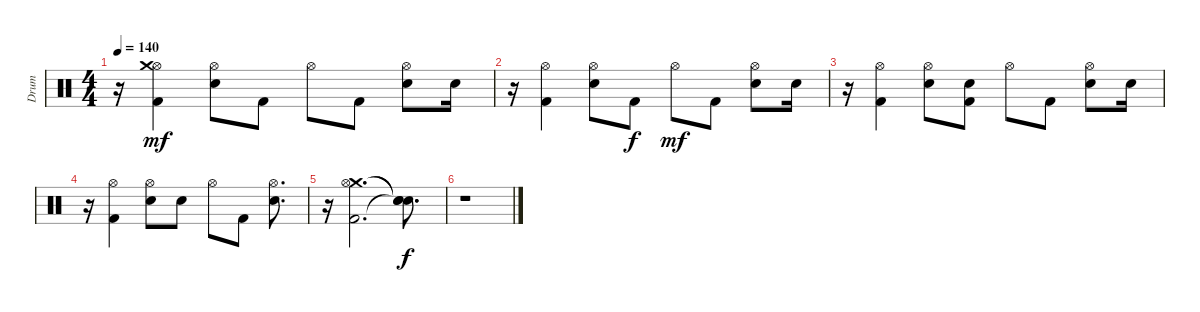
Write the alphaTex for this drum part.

\track ("Drum" "Drum") {instrument percussion}
\staff {score}
\articulation defaults
\ts (4 4)
\tempo 140
\clef neutral
\ks c
r.16{dy mf} ("Hi-Hat (open)" "Crash medium (hit)" "Kick (hit) 2").4 ("Electric Snare (hit)" "Hi-Hat (open)").8 "Kick (hit) 2".8 "Hi-Hat (open)".8 "Kick (hit) 2".8 ("Hi-Hat (open)" "Electric Snare (hit)").8 "Electric Snare (hit)".16 |
r.16 ("Hi-Hat (open)" "Kick (hit) 2").4 ("Hi-Hat (open)" "Electric Snare (hit)").8 "Kick (hit) 2".8{dy f} "Hi-Hat (open)".8{dy mf} "Kick (hit) 2".8 ("Hi-Hat (open)" "Electric Snare (hit)").8 "Electric Snare (hit)".16 |
r.16 ("Hi-Hat (open)" "Kick (hit) 2").4 ("Hi-Hat (open)" "Electric Snare (hit)").8 ("Electric Snare (hit)" "Kick (hit) 2").8 "Hi-Hat (open)".8 "Kick (hit) 2".8 ("Electric Snare (hit)" "Hi-Hat (open)").8 "Electric Snare (hit)".16 |
r.16 ("Hi-Hat (open)" "Kick (hit) 2").4 ("Hi-Hat (open)" "Electric Snare (hit)").8 "Electric Snare (hit)".8 "Hi-Hat (open)".8 "Kick (hit) 2".8 ("Hi-Hat (open)" "Electric Snare (hit)").8{d} |
r.16 ("Crash medium (hit)" "Hi-Hat (open)" "Kick (hit) 2").2{d} ("Snare (hit)"{t} "Snare (hit)"{t} "Snare (hit)"{t}).8{d dy f} |
r.1
